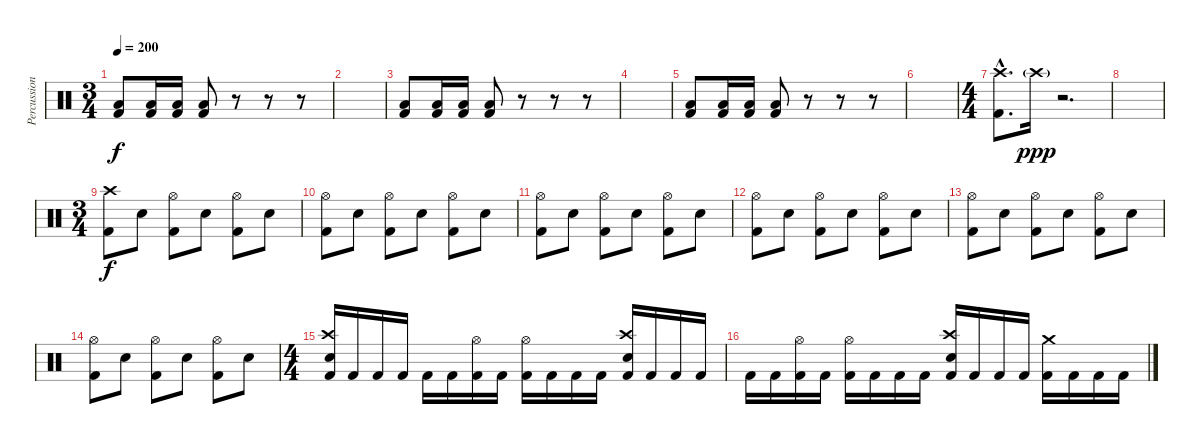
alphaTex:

\track ("Percussion" "Percussion") {instrument percussion}
\staff {score}
\articulation defaults
\ts (3 4)
\tempo 200
\clef neutral
\ks c
("Low Floor Tom (hit)" "Kick (hit) 2").8{dy f} ("Low Floor Tom (hit)" "Kick (hit) 2").16 ("Low Floor Tom (hit)" "Kick (hit) 2").16 ("Low Floor Tom (hit)" "Kick (hit) 2").8 r.8 r.8 r.8 |
|
("Low Floor Tom (hit)" "Kick (hit) 2").8 ("Low Floor Tom (hit)" "Kick (hit) 2").16 ("Low Floor Tom (hit)" "Kick (hit) 2").16 ("Low Floor Tom (hit)" "Kick (hit) 2").8 r.8 r.8 r.8 |
|
("Low Floor Tom (hit)" "Kick (hit) 2").8 ("Low Floor Tom (hit)" "Kick (hit) 2").16 ("Low Floor Tom (hit)" "Kick (hit) 2").16 ("Low Floor Tom (hit)" "Kick (hit) 2").8 r.8 r.8 r.8 |
|
\ts (4 4)
("Crash high (hit)"{hac} "Kick (hit) 2"{hac}).8{d} "Crash high (hit)"{g}.16{dy ppp} r.2{d} |
|
\ts (3 4)
("Crash high (hit)" "Kick (hit) 2").8{dy f} "Electric Snare (hit)".8 ("Hi-Hat (open)" "Kick (hit) 2").8 "Electric Snare (hit)".8 ("Hi-Hat (open)" "Kick (hit) 2").8 "Electric Snare (hit)".8 |
("Hi-Hat (open)" "Kick (hit) 2").8 "Electric Snare (hit)".8 ("Hi-Hat (open)" "Kick (hit) 2").8 "Electric Snare (hit)".8 ("Hi-Hat (open)" "Kick (hit) 2").8 "Electric Snare (hit)".8 |
("Hi-Hat (open)" "Kick (hit) 2").8 "Electric Snare (hit)".8 ("Hi-Hat (open)" "Kick (hit) 2").8 "Electric Snare (hit)".8 ("Hi-Hat (open)" "Kick (hit) 2").8 "Electric Snare (hit)".8 |
("Hi-Hat (open)" "Kick (hit) 2").8 "Electric Snare (hit)".8 ("Hi-Hat (open)" "Kick (hit) 2").8 "Electric Snare (hit)".8 ("Hi-Hat (open)" "Kick (hit) 2").8 "Electric Snare (hit)".8 |
("Hi-Hat (open)" "Kick (hit) 2").8 "Electric Snare (hit)".8 ("Hi-Hat (open)" "Kick (hit) 2").8 "Electric Snare (hit)".8 ("Hi-Hat (open)" "Kick (hit) 2").8 "Electric Snare (hit)".8 |
("Hi-Hat (open)" "Kick (hit) 2").8 "Electric Snare (hit)".8 ("Hi-Hat (open)" "Kick (hit) 2").8 "Electric Snare (hit)".8 ("Hi-Hat (open)" "Kick (hit) 2").8 "Electric Snare (hit)".8 |
\ts (4 4)
("Crash high (hit)" "Electric Snare (hit)" "Kick (hit) 2").16 "Kick (hit) 2".16 "Kick (hit) 2".16 "Kick (hit) 2".16 "Kick (hit) 2".16 "Kick (hit) 2".16 ("Hi-Hat (open)" "Kick (hit) 2").16 "Kick (hit) 2".16 ("Hi-Hat (open)" "Kick (hit) 2").16 "Kick (hit) 2".16 "Kick (hit) 2".16 "Kick (hit) 2".16 ("Crash high (hit)" "Electric Snare (hit)" "Kick (hit) 2").16 "Kick (hit) 2".16 "Kick (hit) 2".16 "Kick (hit) 2".16 |
"Kick (hit) 2".16 "Kick (hit) 2".16 ("Hi-Hat (open)" "Kick (hit) 2").16 "Kick (hit) 2".16 ("Hi-Hat (open)" "Kick (hit) 2").16 "Kick (hit) 2".16 "Kick (hit) 2".16 "Kick (hit) 2".16 ("Crash high (hit)" "Electric Snare (hit)" "Kick (hit) 2").16 "Kick (hit) 2".16 "Kick (hit) 2".16 "Kick (hit) 2".16 ("Crash medium (hit)" "Kick (hit) 2").16 "Kick (hit) 2".16 "Kick (hit) 2".16 "Kick (hit) 2".16
